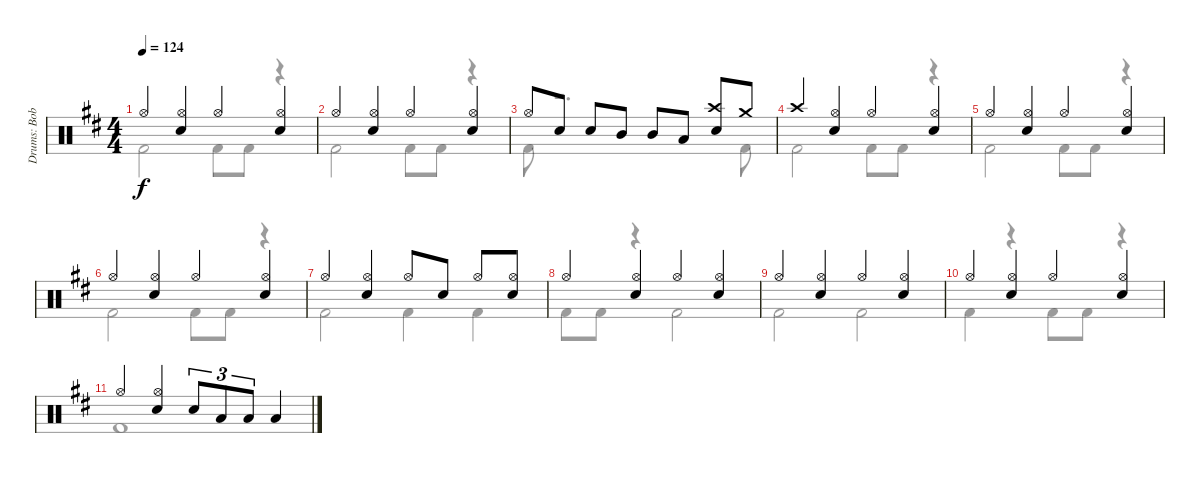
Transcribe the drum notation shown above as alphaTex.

\track ("Drums: Bobby" "Drums: Bob") {instrument percussion}
\staff {score}
\articulation defaults
\voice
\ts (4 4)
\tempo 124
\clef neutral
\ks d "Hi-Hat (open)".4{dy f}
("Hi-Hat (open)" "Snare (hit) 2").4 "Hi-Hat (open)".4 ("Hi-Hat (open)" "Snare (hit) 2").4 |
"Hi-Hat (open)".4 ("Hi-Hat (open)" "Snare (hit) 2").4 "Hi-Hat (open)".4 ("Hi-Hat (open)" "Snare (hit) 2").4 |
"Hi-Hat (open)".8 "Snare (hit) 2".8 "Snare (hit) 2".8 "Mid Tom (hit)".8 "Mid Tom (hit)".8 "Low Tom (hit)".8 ("Crash high (hit)" "Snare (hit) 2").8 "Crash medium (hit)".8 |
"Crash high (hit)".4{volume 8} ("Hi-Hat (open)" "Snare (hit) 2").4 "Hi-Hat (open)".4 ("Hi-Hat (open)" "Snare (hit) 2").4 |
"Hi-Hat (open)".4 ("Hi-Hat (open)" "Snare (hit) 2").4 "Hi-Hat (open)".4 ("Hi-Hat (open)" "Snare (hit) 2").4 |
"Hi-Hat (open)".4 ("Hi-Hat (open)" "Snare (hit) 2").4 "Hi-Hat (open)".4 ("Hi-Hat (open)" "Snare (hit) 2").4 |
"Hi-Hat (open)".4 ("Hi-Hat (open)" "Snare (hit) 2").4 "Hi-Hat (open)".8 "Snare (hit) 2".8 "Hi-Hat (open)".8 ("Hi-Hat (open)" "Snare (hit) 2").8 |
"Hi-Hat (open)".4{volume 0} ("Hi-Hat (open)" "Snare (hit) 2").4 "Hi-Hat (open)".4 ("Hi-Hat (open)" "Snare (hit) 2").4 |
"Hi-Hat (open)".4 ("Hi-Hat (open)" "Snare (hit) 2").4 "Hi-Hat (open)".4 ("Hi-Hat (open)" "Snare (hit) 2").4 |
"Hi-Hat (open)".4 ("Hi-Hat (open)" "Snare (hit) 2").4 "Hi-Hat (open)".4 ("Hi-Hat (open)" "Snare (hit) 2").4 |
"Hi-Hat (open)".4 ("Hi-Hat (open)" "Snare (hit) 2").4 "Snare (hit) 2".8{tu (3 2)} "Low Tom (hit)".8{tu (3 2)} "Low Tom (hit)".8{tu (3 2)} "Low Tom (hit)".4
\voice
\clef neutral
\ottava regular
\simile none
\ks d "Kick (hit) 2".2{dy f} "Kick (hit) 2".8 "Kick (hit) 2".8
r.4 |
"Kick (hit) 2".2 "Kick (hit) 2".8 "Kick (hit) 2".8 r.4 |
"Kick (hit) 2".8 r.2{d} "Kick (hit) 2".8 |
"Kick (hit) 2".2 "Kick (hit) 2".8 "Kick (hit) 2".8 r.4 |
"Kick (hit) 2".2 "Kick (hit) 2".8 "Kick (hit) 2".8 r.4 |
"Kick (hit) 2".2 "Kick (hit) 2".8 "Kick (hit) 2".8 r.4 |
"Kick (hit) 2".2 "Kick (hit) 2".4 "Kick (hit) 2".4 |
"Kick (hit) 2".8 "Kick (hit) 2".8 r.4 "Kick (hit) 2".2 |
"Kick (hit) 2".2 "Kick (hit) 2".2 |
"Kick (hit) 2".4 r.4 "Kick (hit) 2".8 "Kick (hit) 2".8 r.4 |
"Kick (hit) 2".1
